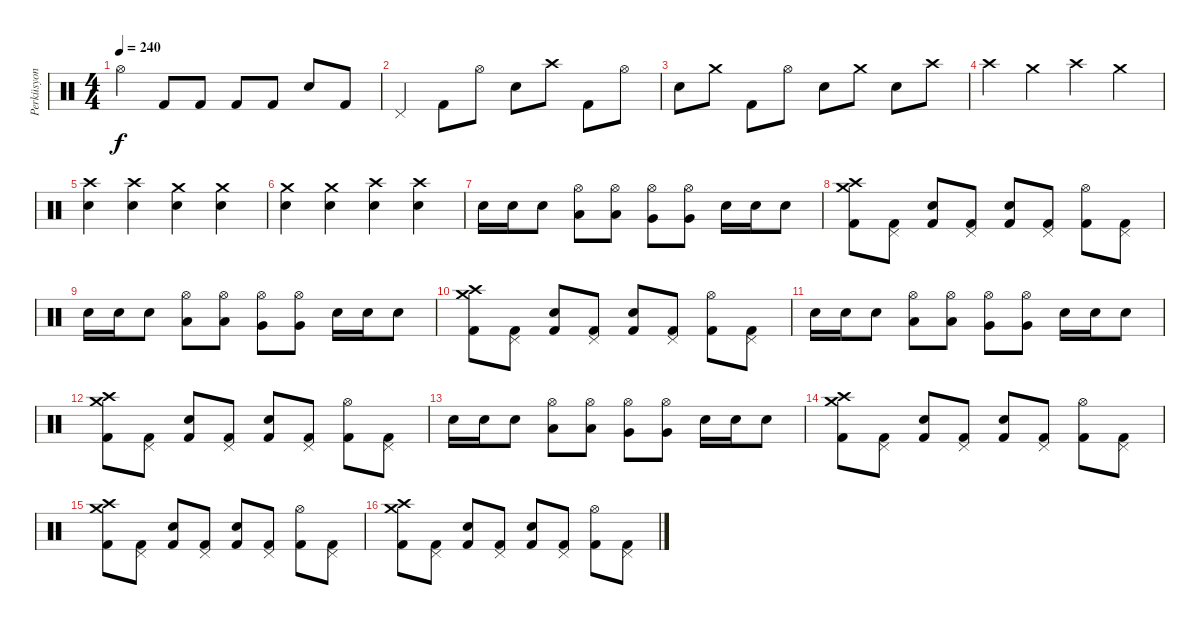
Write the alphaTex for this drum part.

\track ("Perküsyon" "Perküsyon") {instrument percussion}
\staff {score}
\articulation defaults
\ts (4 4)
\tempo 240
\clef neutral
\ks c "Hi-Hat (open)".4{dy f} "Kick (hit) 2".8 "Kick (hit) 2".8 "Kick (hit) 2".8 "Kick (hit) 2".8 "Snare (hit) 2".8 "Kick (hit) 2".8
|
"Pedal Hi-Hat (hit)".4 "Kick (hit) 2".8 "Hi-Hat (open)".8 "Snare (hit) 2".8 "Crash high (hit)".8 "Kick (hit) 2".8 "Hi-Hat (open)".8 |
"Electric Snare (hit)".8 "Crash medium (hit)".8 "Kick (hit) 2".8 "Hi-Hat (open)".8 "Electric Snare (hit)".8 "Crash medium (hit)".8 "Snare (hit) 2".8 "Crash high (hit)".8 |
"Crash high (hit)".4 "Crash medium (hit)".4 "Crash high (hit)".4 "Crash medium (hit)".4 |
("Crash high (hit)" "Snare (hit) 2").4 ("Crash high (hit)" "Snare (hit) 2").4 ("Crash medium (hit)" "Electric Snare (hit)").4 ("Crash medium (hit)" "Electric Snare (hit)").4 |
("Crash medium (hit)" "Electric Snare (hit)").4 ("Crash medium (hit)" "Electric Snare (hit)").4 ("Crash high (hit)" "Snare (hit) 2").4 ("Crash high (hit)" "Snare (hit) 2").4 |
"Snare (hit) 2".16 "Snare (hit) 2".16 "Electric Snare (hit)".8 ("Hi-Hat (open)" "Low Tom (hit)").8 ("Hi-Hat (open)" "Low Tom (hit)").8 ("Hi-Hat (open)" "Very Low Tom (hit)").8 ("Hi-Hat (open)" "Very Low Tom (hit)").8 "Snare (hit) 2".16 "Snare (hit) 2".16 "Electric Snare (hit)".8 |
("Crash medium (hit)" "Kick (hit) 2" "Crash high (hit)").8 ("Kick (hit) 2" "Pedal Hi-Hat (hit)").8 ("Kick (hit) 2" "Snare (hit) 2").8 ("Kick (hit) 2" "Pedal Hi-Hat (hit)").8 ("Kick (hit) 2" "Electric Snare (hit)").8 ("Kick (hit) 2" "Pedal Hi-Hat (hit)").8 ("Kick (hit) 2" "Hi-Hat (open)").8 ("Kick (hit) 2" "Pedal Hi-Hat (hit)").8 |
"Snare (hit) 2".16 "Snare (hit) 2".16 "Electric Snare (hit)".8 ("Hi-Hat (open)" "Low Tom (hit)").8 ("Hi-Hat (open)" "Low Tom (hit)").8 ("Hi-Hat (open)" "Very Low Tom (hit)").8 ("Hi-Hat (open)" "Very Low Tom (hit)").8 "Snare (hit) 2".16 "Snare (hit) 2".16 "Electric Snare (hit)".8 |
("Crash medium (hit)" "Kick (hit) 2" "Crash high (hit)").8 ("Kick (hit) 2" "Pedal Hi-Hat (hit)").8 ("Kick (hit) 2" "Snare (hit) 2").8 ("Kick (hit) 2" "Pedal Hi-Hat (hit)").8 ("Kick (hit) 2" "Electric Snare (hit)").8 ("Kick (hit) 2" "Pedal Hi-Hat (hit)").8 ("Kick (hit) 2" "Hi-Hat (open)").8 ("Kick (hit) 2" "Pedal Hi-Hat (hit)").8 |
"Snare (hit) 2".16 "Snare (hit) 2".16 "Electric Snare (hit)".8 ("Hi-Hat (open)" "Low Tom (hit)").8 ("Hi-Hat (open)" "Low Tom (hit)").8 ("Hi-Hat (open)" "Very Low Tom (hit)").8 ("Hi-Hat (open)" "Very Low Tom (hit)").8 "Snare (hit) 2".16 "Snare (hit) 2".16 "Electric Snare (hit)".8 |
("Crash medium (hit)" "Kick (hit) 2" "Crash high (hit)").8 ("Kick (hit) 2" "Pedal Hi-Hat (hit)").8 ("Kick (hit) 2" "Snare (hit) 2").8 ("Kick (hit) 2" "Pedal Hi-Hat (hit)").8 ("Kick (hit) 2" "Electric Snare (hit)").8 ("Kick (hit) 2" "Pedal Hi-Hat (hit)").8 ("Kick (hit) 2" "Hi-Hat (open)").8 ("Kick (hit) 2" "Pedal Hi-Hat (hit)").8 |
"Snare (hit) 2".16 "Snare (hit) 2".16 "Electric Snare (hit)".8 ("Hi-Hat (open)" "Low Tom (hit)").8 ("Hi-Hat (open)" "Low Tom (hit)").8 ("Hi-Hat (open)" "Very Low Tom (hit)").8 ("Hi-Hat (open)" "Very Low Tom (hit)").8 "Snare (hit) 2".16 "Snare (hit) 2".16 "Electric Snare (hit)".8 |
("Crash medium (hit)" "Kick (hit) 2" "Crash high (hit)").8 ("Kick (hit) 2" "Pedal Hi-Hat (hit)").8 ("Kick (hit) 2" "Snare (hit) 2").8 ("Kick (hit) 2" "Pedal Hi-Hat (hit)").8 ("Kick (hit) 2" "Electric Snare (hit)").8 ("Kick (hit) 2" "Pedal Hi-Hat (hit)").8 ("Kick (hit) 2" "Hi-Hat (open)").8 ("Kick (hit) 2" "Pedal Hi-Hat (hit)").8 |
("Crash medium (hit)" "Kick (hit) 2" "Crash high (hit)").8 ("Kick (hit) 2" "Pedal Hi-Hat (hit)").8 ("Kick (hit) 2" "Snare (hit) 2").8 ("Kick (hit) 2" "Pedal Hi-Hat (hit)").8 ("Kick (hit) 2" "Electric Snare (hit)").8 ("Kick (hit) 2" "Pedal Hi-Hat (hit)").8 ("Kick (hit) 2" "Hi-Hat (open)").8 ("Kick (hit) 2" "Pedal Hi-Hat (hit)").8 |
("Crash medium (hit)" "Kick (hit) 2" "Crash high (hit)").8 ("Kick (hit) 2" "Pedal Hi-Hat (hit)").8 ("Kick (hit) 2" "Snare (hit) 2").8 ("Kick (hit) 2" "Pedal Hi-Hat (hit)").8 ("Kick (hit) 2" "Electric Snare (hit)").8 ("Kick (hit) 2" "Pedal Hi-Hat (hit)").8 ("Kick (hit) 2" "Hi-Hat (open)").8 ("Kick (hit) 2" "Pedal Hi-Hat (hit)").8
